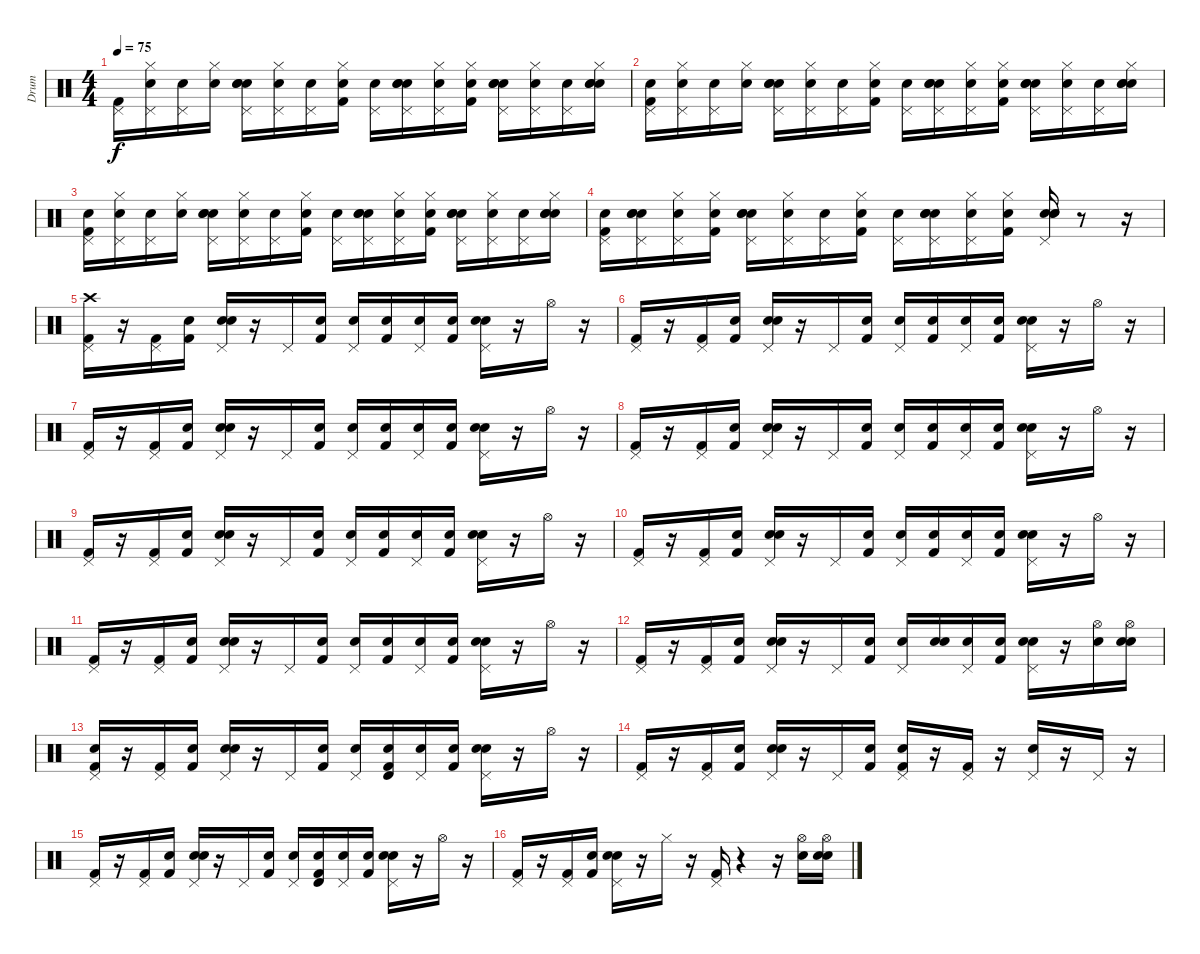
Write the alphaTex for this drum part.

\track ("Drum" "Drum") {instrument percussion}
\staff {score}
\articulation defaults
\ts (4 4)
\tempo 75
\clef neutral
\ks c
("Pedal Hi-Hat (hit)" "Kick (hit) 2").16{dy f} ("Snare (hit)" "Pedal Hi-Hat (hit)" "Hi-Hat (closed)").16 ("Snare (hit)" "Pedal Hi-Hat (hit)").16 ("Snare (hit)" "Hi-Hat (closed)").16 ("Snare (hit)" "Pedal Hi-Hat (hit)" "Hand Clap (hit)" "Electric Snare (hit)").16 ("Snare (hit)" "Pedal Hi-Hat (hit)" "Hi-Hat (closed)").16 ("Snare (hit)" "Pedal Hi-Hat (hit)").16 ("Snare (hit)" "Hi-Hat (closed)" "Kick (hit) 2").16 ("Snare (hit)" "Pedal Hi-Hat (hit)").16 ("Snare (hit)" "Pedal Hi-Hat (hit)" "Hand Clap (hit)" "Electric Snare (hit)").16 ("Snare (hit)" "Pedal Hi-Hat (hit)" "Hi-Hat (closed)").16 ("Snare (hit)" "Hi-Hat (closed)" "Kick (hit) 2").16 ("Snare (hit)" "Pedal Hi-Hat (hit)" "Hand Clap (hit)" "Electric Snare (hit)").16 ("Snare (hit)" "Pedal Hi-Hat (hit)" "Hi-Hat (closed)").16 ("Snare (hit)" "Pedal Hi-Hat (hit)").16 ("Snare (hit)" "Hand Clap (hit)" "Electric Snare (hit)" "Hi-Hat (closed)").16 |
("Snare (hit)" "Pedal Hi-Hat (hit)" "Kick (hit) 2").16 ("Snare (hit)" "Pedal Hi-Hat (hit)" "Hi-Hat (closed)").16 ("Snare (hit)" "Pedal Hi-Hat (hit)").16 ("Snare (hit)" "Hi-Hat (closed)").16 ("Snare (hit)" "Pedal Hi-Hat (hit)" "Hand Clap (hit)" "Electric Snare (hit)").16 ("Snare (hit)" "Pedal Hi-Hat (hit)" "Hi-Hat (closed)").16 ("Snare (hit)" "Pedal Hi-Hat (hit)").16 ("Snare (hit)" "Hi-Hat (closed)" "Kick (hit) 2").16 ("Snare (hit)" "Pedal Hi-Hat (hit)").16 ("Snare (hit)" "Pedal Hi-Hat (hit)" "Hand Clap (hit)" "Electric Snare (hit)").16 ("Snare (hit)" "Pedal Hi-Hat (hit)" "Hi-Hat (closed)").16 ("Snare (hit)" "Hi-Hat (closed)" "Kick (hit) 2").16 ("Snare (hit)" "Pedal Hi-Hat (hit)" "Hand Clap (hit)" "Electric Snare (hit)").16 ("Snare (hit)" "Pedal Hi-Hat (hit)" "Hi-Hat (closed)").16 ("Snare (hit)" "Pedal Hi-Hat (hit)").16 ("Snare (hit)" "Hand Clap (hit)" "Electric Snare (hit)" "Hi-Hat (closed)").16 |
("Snare (hit)" "Pedal Hi-Hat (hit)" "Kick (hit) 2").16 ("Snare (hit)" "Pedal Hi-Hat (hit)" "Hi-Hat (closed)").16 ("Snare (hit)" "Pedal Hi-Hat (hit)").16 ("Snare (hit)" "Hi-Hat (closed)").16 ("Snare (hit)" "Pedal Hi-Hat (hit)" "Hand Clap (hit)" "Electric Snare (hit)").16 ("Snare (hit)" "Pedal Hi-Hat (hit)" "Hi-Hat (closed)").16 ("Snare (hit)" "Pedal Hi-Hat (hit)").16 ("Snare (hit)" "Hi-Hat (closed)" "Kick (hit) 2").16 ("Snare (hit)" "Pedal Hi-Hat (hit)").16 ("Snare (hit)" "Pedal Hi-Hat (hit)" "Hand Clap (hit)" "Electric Snare (hit)").16 ("Snare (hit)" "Pedal Hi-Hat (hit)" "Hi-Hat (closed)").16 ("Snare (hit)" "Hi-Hat (closed)" "Kick (hit) 2").16 ("Snare (hit)" "Pedal Hi-Hat (hit)" "Hand Clap (hit)" "Electric Snare (hit)").16 ("Snare (hit)" "Pedal Hi-Hat (hit)" "Hi-Hat (closed)").16 ("Snare (hit)" "Pedal Hi-Hat (hit)").16 ("Snare (hit)" "Hand Clap (hit)" "Electric Snare (hit)" "Hi-Hat (closed)").16 |
("Snare (hit)" "Pedal Hi-Hat (hit)" "Kick (hit) 2").16 ("Snare (hit)" "Pedal Hi-Hat (hit)" "Hand Clap (hit)" "Electric Snare (hit)").16 ("Snare (hit)" "Pedal Hi-Hat (hit)" "Hi-Hat (closed)").16 ("Snare (hit)" "Kick (hit) 2" "Hi-Hat (closed)").16 ("Snare (hit)" "Pedal Hi-Hat (hit)" "Hand Clap (hit)" "Electric Snare (hit)").16 ("Snare (hit)" "Pedal Hi-Hat (hit)" "Hi-Hat (closed)").16 ("Snare (hit)" "Pedal Hi-Hat (hit)").16 ("Snare (hit)" "Hi-Hat (closed)" "Kick (hit) 2").16 ("Snare (hit)" "Pedal Hi-Hat (hit)").16 ("Snare (hit)" "Pedal Hi-Hat (hit)" "Hand Clap (hit)" "Electric Snare (hit)").16 ("Snare (hit)" "Pedal Hi-Hat (hit)" "Hi-Hat (closed)").16 ("Snare (hit)" "Hi-Hat (closed)" "Kick (hit) 2").16 ("Snare (hit)" "Pedal Hi-Hat (hit)" "Hand Clap (hit)" "Electric Snare (hit)").16 r.8 r.16 |
("Pedal Hi-Hat (hit)" "Kick (hit) 2" "Crash high (hit)").16 r.16 ("Pedal Hi-Hat (hit)" "Kick (hit) 2").16 ("Snare (hit)" "Kick (hit) 2").16 ("Snare (hit)" "Snare (hit) 2" "Pedal Hi-Hat (hit)").16 r.16 "Pedal Hi-Hat (hit)".16 ("Snare (hit)" "Kick (hit) 2").16 ("Snare (hit)" "Pedal Hi-Hat (hit)").16 ("Snare (hit)" "Kick (hit) 2").16 ("Snare (hit)" "Pedal Hi-Hat (hit)").16 ("Snare (hit)" "Kick (hit) 2").16 ("Snare (hit)" "Pedal Hi-Hat (hit)" "Snare (hit) 2").16 r.16 "Hi-Hat (open)".16 r.16 |
("Pedal Hi-Hat (hit)" "Kick (hit) 2").16 r.16 ("Pedal Hi-Hat (hit)" "Kick (hit) 2").16 ("Snare (hit)" "Kick (hit) 2").16 ("Snare (hit)" "Snare (hit) 2" "Pedal Hi-Hat (hit)").16 r.16 "Pedal Hi-Hat (hit)".16 ("Snare (hit)" "Kick (hit) 2").16 ("Snare (hit)" "Pedal Hi-Hat (hit)").16 ("Snare (hit)" "Kick (hit) 2").16 ("Snare (hit)" "Pedal Hi-Hat (hit)").16 ("Snare (hit)" "Kick (hit) 2").16 ("Snare (hit)" "Pedal Hi-Hat (hit)" "Snare (hit) 2").16 r.16 "Hi-Hat (open)".16 r.16 |
("Pedal Hi-Hat (hit)" "Kick (hit) 2").16 r.16 ("Pedal Hi-Hat (hit)" "Kick (hit) 2").16 ("Snare (hit)" "Kick (hit) 2").16 ("Snare (hit)" "Snare (hit) 2" "Pedal Hi-Hat (hit)").16 r.16 "Pedal Hi-Hat (hit)".16 ("Snare (hit)" "Kick (hit) 2").16 ("Snare (hit)" "Pedal Hi-Hat (hit)").16 ("Snare (hit)" "Kick (hit) 2").16 ("Snare (hit)" "Pedal Hi-Hat (hit)").16 ("Snare (hit)" "Kick (hit) 2").16 ("Snare (hit)" "Pedal Hi-Hat (hit)" "Snare (hit) 2").16 r.16 "Hi-Hat (open)".16 r.16 |
("Pedal Hi-Hat (hit)" "Kick (hit) 2").16 r.16 ("Pedal Hi-Hat (hit)" "Kick (hit) 2").16 ("Snare (hit)" "Kick (hit) 2").16 ("Snare (hit)" "Snare (hit) 2" "Pedal Hi-Hat (hit)").16 r.16 "Pedal Hi-Hat (hit)".16 ("Snare (hit)" "Kick (hit) 2").16 ("Snare (hit)" "Pedal Hi-Hat (hit)").16 ("Snare (hit)" "Kick (hit) 2").16 ("Snare (hit)" "Pedal Hi-Hat (hit)").16 ("Snare (hit)" "Kick (hit) 2").16 ("Snare (hit)" "Pedal Hi-Hat (hit)" "Snare (hit) 2").16 r.16 "Hi-Hat (open)".16 r.16 |
("Pedal Hi-Hat (hit)" "Kick (hit) 2").16 r.16 ("Pedal Hi-Hat (hit)" "Kick (hit) 2").16 ("Snare (hit)" "Kick (hit) 2").16 ("Snare (hit)" "Snare (hit) 2" "Pedal Hi-Hat (hit)").16 r.16 "Pedal Hi-Hat (hit)".16 ("Snare (hit)" "Kick (hit) 2").16 ("Snare (hit)" "Pedal Hi-Hat (hit)").16 ("Snare (hit)" "Kick (hit) 2").16 ("Snare (hit)" "Pedal Hi-Hat (hit)").16 ("Snare (hit)" "Kick (hit) 2").16 ("Snare (hit)" "Pedal Hi-Hat (hit)" "Snare (hit) 2").16 r.16 "Hi-Hat (open)".16 r.16 |
("Pedal Hi-Hat (hit)" "Kick (hit) 2").16 r.16 ("Pedal Hi-Hat (hit)" "Kick (hit) 2").16 ("Snare (hit)" "Kick (hit) 2").16 ("Snare (hit)" "Snare (hit) 2" "Pedal Hi-Hat (hit)").16 r.16 "Pedal Hi-Hat (hit)".16 ("Snare (hit)" "Kick (hit) 2").16 ("Snare (hit)" "Pedal Hi-Hat (hit)").16 ("Snare (hit)" "Kick (hit) 2").16 ("Snare (hit)" "Pedal Hi-Hat (hit)").16 ("Snare (hit)" "Kick (hit) 2").16 ("Snare (hit)" "Pedal Hi-Hat (hit)" "Snare (hit) 2").16 r.16 "Hi-Hat (open)".16 r.16 |
("Pedal Hi-Hat (hit)" "Kick (hit) 2").16 r.16 ("Pedal Hi-Hat (hit)" "Kick (hit) 2").16 ("Snare (hit)" "Kick (hit) 2").16 ("Snare (hit)" "Snare (hit) 2" "Pedal Hi-Hat (hit)").16 r.16 "Pedal Hi-Hat (hit)".16 ("Snare (hit)" "Kick (hit) 2").16 ("Snare (hit)" "Pedal Hi-Hat (hit)").16 ("Snare (hit)" "Kick (hit) 2").16 ("Snare (hit)" "Pedal Hi-Hat (hit)").16 ("Snare (hit)" "Kick (hit) 2").16 ("Snare (hit)" "Pedal Hi-Hat (hit)" "Snare (hit) 2").16 r.16 "Hi-Hat (open)".16 r.16 |
("Pedal Hi-Hat (hit)" "Kick (hit) 2").16 r.16 ("Kick (hit) 2" "Pedal Hi-Hat (hit)").16 ("Snare (hit)" "Kick (hit) 2").16 ("Snare (hit)" "Snare (hit) 2" "Pedal Hi-Hat (hit)").16 r.16 "Pedal Hi-Hat (hit)".16 ("Snare (hit)" "Kick (hit) 2").16 ("Snare (hit)" "Pedal Hi-Hat (hit)").16 ("Snare (hit)" "Snare (hit) 2").16 ("Snare (hit)" "Pedal Hi-Hat (hit)").16 ("Snare (hit)" "Kick (hit) 2").16 ("Snare (hit)" "Snare (hit) 2" "Pedal Hi-Hat (hit)").16 r.16 ("Hi-Hat (open)" "Snare (hit) 2").16 ("Snare (hit)" "Snare (hit) 2" "Hi-Hat (open)").16 |
("Snare (hit)" "Pedal Hi-Hat (hit)" "Kick (hit) 2").16 r.16 ("Kick (hit) 2" "Pedal Hi-Hat (hit)").16 ("Snare (hit)" "Kick (hit) 2").16 ("Snare (hit)" "Pedal Hi-Hat (hit)" "Snare (hit) 2").16 r.16 "Pedal Hi-Hat (hit)".16 ("Snare (hit)" "Kick (hit) 2").16 ("Snare (hit)" "Pedal Hi-Hat (hit)").16 ("Snare (hit)" "Timbale high (hit)" "Kick (hit) 2").16 ("Snare (hit)" "Pedal Hi-Hat (hit)").16 ("Snare (hit)" "Kick (hit) 2").16 ("Snare (hit)" "Pedal Hi-Hat (hit)" "Snare (hit) 2").16 r.16 "Hi-Hat (open)".16 r.16 |
("Pedal Hi-Hat (hit)" "Kick (hit) 2").16 r.16 ("Pedal Hi-Hat (hit)" "Kick (hit) 2").16 ("Snare (hit)" "Kick (hit) 2").16 ("Snare (hit)" "Snare (hit) 2" "Pedal Hi-Hat (hit)").16 r.16 "Pedal Hi-Hat (hit)".16 ("Snare (hit)" "Kick (hit) 2").16 ("Snare (hit)" "Pedal Hi-Hat (hit)" "Kick (hit) 2").16 r.16 ("Kick (hit) 2" "Pedal Hi-Hat (hit)").16 r.16 ("Pedal Hi-Hat (hit)" "Snare (hit) 2").16 r.16 "Pedal Hi-Hat (hit)".16 r.16 |
("Pedal Hi-Hat (hit)" "Kick (hit) 2").16 r.16 ("Kick (hit) 2" "Pedal Hi-Hat (hit)").16 ("Snare (hit)" "Kick (hit) 2").16 ("Snare (hit)" "Pedal Hi-Hat (hit)" "Snare (hit) 2").16 r.16 "Pedal Hi-Hat (hit)".16 ("Snare (hit)" "Kick (hit) 2").16 ("Snare (hit)" "Pedal Hi-Hat (hit)").16 ("Snare (hit)" "Timbale high (hit)" "Kick (hit) 2").16 ("Snare (hit)" "Pedal Hi-Hat (hit)").16 ("Snare (hit)" "Kick (hit) 2").16 ("Snare (hit)" "Pedal Hi-Hat (hit)" "Snare (hit) 2").16 r.16 "Hi-Hat (open)".16 r.16 |
("Pedal Hi-Hat (hit)" "Kick (hit) 2").16 r.16 ("Pedal Hi-Hat (hit)" "Kick (hit) 2").16 ("Snare (hit)" "Kick (hit) 2").16 ("Snare (hit)" "Pedal Hi-Hat (hit)" "Snare (hit) 2").16 r.16 "Hi-Hat (closed)".16 r.16 ("Kick (hit) 2" "Pedal Hi-Hat (hit)").16 r.4 r.16 ("Hi-Hat (open)" "Snare (hit) 2").16 ("Snare (hit)" "Snare (hit) 2" "Hi-Hat (open)").16
